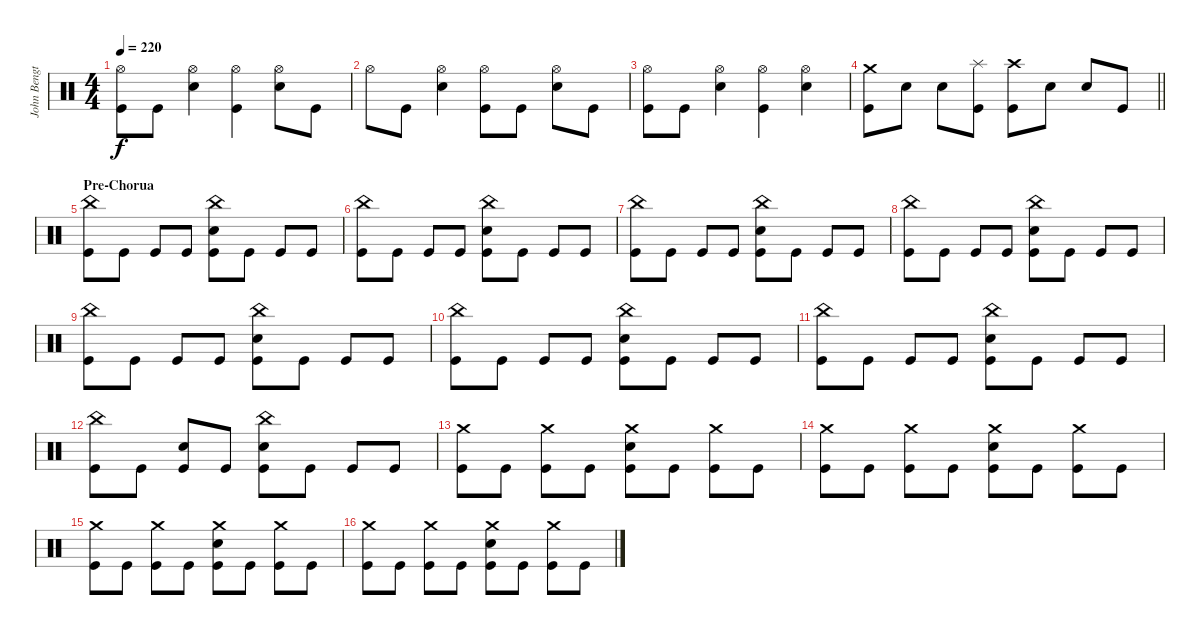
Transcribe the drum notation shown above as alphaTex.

\track ("John Bengtsson" "John Bengt") {instrument percussion}
\staff {score}
\articulation defaults
\ts (4 4)
\tempo 220
\clef neutral
\ks c
("Hi-Hat (open)" "Kick (hit)").8{dy f} "Kick (hit)".8 ("Hi-Hat (open)" "Snare (hit) 2").4 ("Hi-Hat (open)" "Kick (hit)").4 ("Hi-Hat (open)" "Snare (hit) 2").8 "Kick (hit)".8 |
"Hi-Hat (open)".8 "Kick (hit)".8 ("Hi-Hat (open)" "Snare (hit) 2").4 ("Hi-Hat (open)" "Kick (hit)").8 "Kick (hit)".8 ("Hi-Hat (open)" "Snare (hit) 2").8 "Kick (hit)".8 |
("Hi-Hat (open)" "Kick (hit)").8 "Kick (hit)".8 ("Hi-Hat (open)" "Snare (hit) 2").4 ("Hi-Hat (open)" "Kick (hit)").4 ("Hi-Hat (open)" "Snare (hit) 2").4 |
\barLineRight lightlight
("Crash medium (hit)" "Kick (hit)").8 "Snare (hit) 2".8 "Snare (hit) 2".8 ("Splash (hit)" "Kick (hit)").8 ("Crash high (hit)" "Kick (hit)").8 "Snare (hit) 2".8 "Snare (hit) 2".8 "Kick (hit)".8 |
\section ("" "Pre-Chorua")
("China (hit)" "Kick (hit)").8 "Kick (hit)".8 "Kick (hit)".8 "Kick (hit)".8 ("China (hit)" "Snare (hit) 2" "Kick (hit)").8 "Kick (hit)".8 "Kick (hit)".8 "Kick (hit)".8 |
("China (hit)" "Kick (hit)").8 "Kick (hit)".8 "Kick (hit)".8 "Kick (hit)".8 ("China (hit)" "Snare (hit) 2" "Kick (hit)").8 "Kick (hit)".8 "Kick (hit)".8 "Kick (hit)".8 |
("China (hit)" "Kick (hit)").8 "Kick (hit)".8 "Kick (hit)".8 "Kick (hit)".8 ("China (hit)" "Snare (hit) 2" "Kick (hit)").8 "Kick (hit)".8 "Kick (hit)".8 "Kick (hit)".8 |
("China (hit)" "Kick (hit)").8 "Kick (hit)".8 "Kick (hit)".8 "Kick (hit)".8 ("China (hit)" "Snare (hit) 2" "Kick (hit)").8 "Kick (hit)".8 "Kick (hit)".8 "Kick (hit)".8 |
("China (hit)" "Kick (hit)").8 "Kick (hit)".8 "Kick (hit)".8 "Kick (hit)".8 ("China (hit)" "Snare (hit) 2" "Kick (hit)").8 "Kick (hit)".8 "Kick (hit)".8 "Kick (hit)".8 |
("China (hit)" "Kick (hit)").8 "Kick (hit)".8 "Kick (hit)".8 "Kick (hit)".8 ("China (hit)" "Snare (hit) 2" "Kick (hit)").8 "Kick (hit)".8 "Kick (hit)".8 "Kick (hit)".8 |
("China (hit)" "Kick (hit)").8 "Kick (hit)".8 "Kick (hit)".8 "Kick (hit)".8 ("China (hit)" "Snare (hit) 2" "Kick (hit)").8 "Kick (hit)".8 "Kick (hit)".8 "Kick (hit)".8 |
("China (hit)" "Kick (hit)").8 "Kick (hit)".8 ("Snare (hit) 2" "Kick (hit)").8 "Kick (hit)".8 ("China (hit)" "Snare (hit) 2" "Kick (hit)").8 "Kick (hit)".8 "Kick (hit)".8 "Kick (hit)".8 |
("Crash medium (hit)" "Kick (hit)").8 "Kick (hit)".8 ("Crash medium (hit)" "Kick (hit)").8 "Kick (hit)".8 ("Crash medium (hit)" "Snare (hit) 2" "Kick (hit)").8 "Kick (hit)".8 ("Crash medium (hit)" "Kick (hit)").8 "Kick (hit)".8 |
("Crash medium (hit)" "Kick (hit)").8 "Kick (hit)".8 ("Crash medium (hit)" "Kick (hit)").8 "Kick (hit)".8 ("Crash medium (hit)" "Snare (hit) 2" "Kick (hit)").8 "Kick (hit)".8 ("Crash medium (hit)" "Kick (hit)").8 "Kick (hit)".8 |
("Crash medium (hit)" "Kick (hit)").8 "Kick (hit)".8 ("Crash medium (hit)" "Kick (hit)").8 "Kick (hit)".8 ("Crash medium (hit)" "Snare (hit) 2" "Kick (hit)").8 "Kick (hit)".8 ("Crash medium (hit)" "Kick (hit)").8 "Kick (hit)".8 |
("Crash medium (hit)" "Kick (hit)").8 "Kick (hit)".8 ("Crash medium (hit)" "Kick (hit)").8 "Kick (hit)".8 ("Crash medium (hit)" "Snare (hit) 2" "Kick (hit)").8 "Kick (hit)".8 ("Crash medium (hit)" "Kick (hit)").8 "Kick (hit)".8
